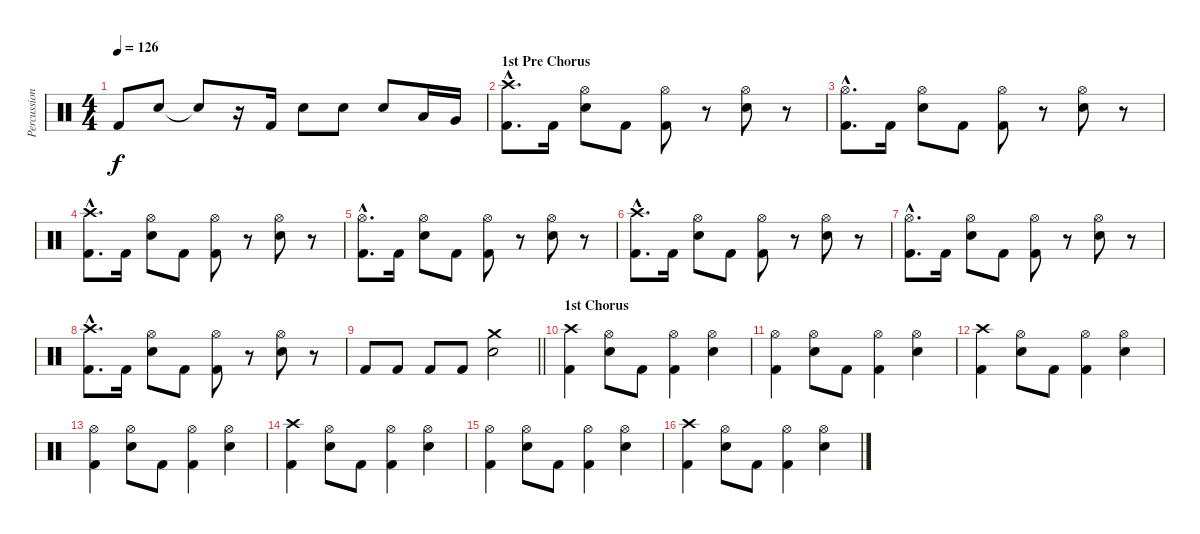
\track ("Percussion" "Percussion") {instrument percussion}
\staff {score}
\articulation defaults
\ts (4 4)
\tempo 126
\clef neutral
\ks c "Kick (hit) 2".8{dy f} "Snare (hit) 2".8 "Snare (hit)"{t}.8
r.16 "Kick (hit) 2".16 "Snare (hit) 2".8 "Snare (hit) 2".8 "Snare (hit) 2".8 "Low Tom (hit)".16 "Very Low Tom (hit)".16 |
\section ("" "1st Pre Chorus")
("Crash high (hit)"{hac} "Kick (hit) 2"{hac}).8{d} "Kick (hit) 2".16 ("Hi-Hat (open)" "Snare (hit) 2").8 "Kick (hit) 2".8 ("Hi-Hat (open)" "Kick (hit) 2").8 r.8 ("Hi-Hat (open)" "Snare (hit) 2").8 r.8 |
("Hi-Hat (open)"{hac} "Kick (hit) 2"{hac}).8{d} "Kick (hit) 2".16 ("Hi-Hat (open)" "Snare (hit) 2").8 "Kick (hit) 2".8 ("Hi-Hat (open)" "Kick (hit) 2").8 r.8 ("Hi-Hat (open)" "Snare (hit) 2").8 r.8 |
("Crash high (hit)"{hac} "Kick (hit) 2"{hac}).8{d} "Kick (hit) 2".16 ("Hi-Hat (open)" "Snare (hit) 2").8 "Kick (hit) 2".8 ("Hi-Hat (open)" "Kick (hit) 2").8 r.8 ("Hi-Hat (open)" "Snare (hit) 2").8 r.8 |
("Hi-Hat (open)"{hac} "Kick (hit) 2"{hac}).8{d} "Kick (hit) 2".16 ("Hi-Hat (open)" "Snare (hit) 2").8 "Kick (hit) 2".8 ("Hi-Hat (open)" "Kick (hit) 2").8 r.8 ("Hi-Hat (open)" "Snare (hit) 2").8 r.8 |
("Crash high (hit)"{hac} "Kick (hit) 2"{hac}).8{d} "Kick (hit) 2".16 ("Hi-Hat (open)" "Snare (hit) 2").8 "Kick (hit) 2".8 ("Hi-Hat (open)" "Kick (hit) 2").8 r.8 ("Hi-Hat (open)" "Snare (hit) 2").8 r.8 |
("Hi-Hat (open)"{hac} "Kick (hit) 2"{hac}).8{d} "Kick (hit) 2".16 ("Hi-Hat (open)" "Snare (hit) 2").8 "Kick (hit) 2".8 ("Hi-Hat (open)" "Kick (hit) 2").8 r.8 ("Hi-Hat (open)" "Snare (hit) 2").8 r.8 |
("Crash high (hit)"{hac} "Kick (hit) 2"{hac}).8{d} "Kick (hit) 2".16 ("Hi-Hat (open)" "Snare (hit) 2").8 "Kick (hit) 2".8 ("Hi-Hat (open)" "Kick (hit) 2").8 r.8 ("Hi-Hat (open)" "Snare (hit) 2").8 r.8 |
\barLineRight lightlight "Kick (hit) 2".8 "Kick (hit) 2".8 "Kick (hit) 2".8 "Kick (hit) 2".8
("Crash medium (hit)" "Snare (hit) 2").2 |
\section ("" "1st Chorus")
("Crash high (hit)" "Kick (hit) 2").4 ("Hi-Hat (open)" "Snare (hit) 2").8 "Kick (hit) 2".8 ("Hi-Hat (open)" "Kick (hit) 2").4 ("Hi-Hat (open)" "Snare (hit) 2").4 |
("Hi-Hat (open)" "Kick (hit) 2").4 ("Hi-Hat (open)" "Snare (hit) 2").8 "Kick (hit) 2".8 ("Hi-Hat (open)" "Kick (hit) 2").4 ("Hi-Hat (open)" "Snare (hit) 2").4 |
("Crash high (hit)" "Kick (hit) 2").4 ("Hi-Hat (open)" "Snare (hit) 2").8 "Kick (hit) 2".8 ("Hi-Hat (open)" "Kick (hit) 2").4 ("Hi-Hat (open)" "Snare (hit) 2").4 |
("Hi-Hat (open)" "Kick (hit) 2").4 ("Hi-Hat (open)" "Snare (hit) 2").8 "Kick (hit) 2".8 ("Hi-Hat (open)" "Kick (hit) 2").4 ("Hi-Hat (open)" "Snare (hit) 2").4 |
("Crash high (hit)" "Kick (hit) 2").4 ("Hi-Hat (open)" "Snare (hit) 2").8 "Kick (hit) 2".8 ("Hi-Hat (open)" "Kick (hit) 2").4 ("Hi-Hat (open)" "Snare (hit) 2").4 |
("Hi-Hat (open)" "Kick (hit) 2").4 ("Hi-Hat (open)" "Snare (hit) 2").8 "Kick (hit) 2".8 ("Hi-Hat (open)" "Kick (hit) 2").4 ("Hi-Hat (open)" "Snare (hit) 2").4 |
("Crash high (hit)" "Kick (hit) 2").4 ("Hi-Hat (open)" "Snare (hit) 2").8 "Kick (hit) 2".8 ("Hi-Hat (open)" "Kick (hit) 2").4 ("Hi-Hat (open)" "Snare (hit) 2").4
